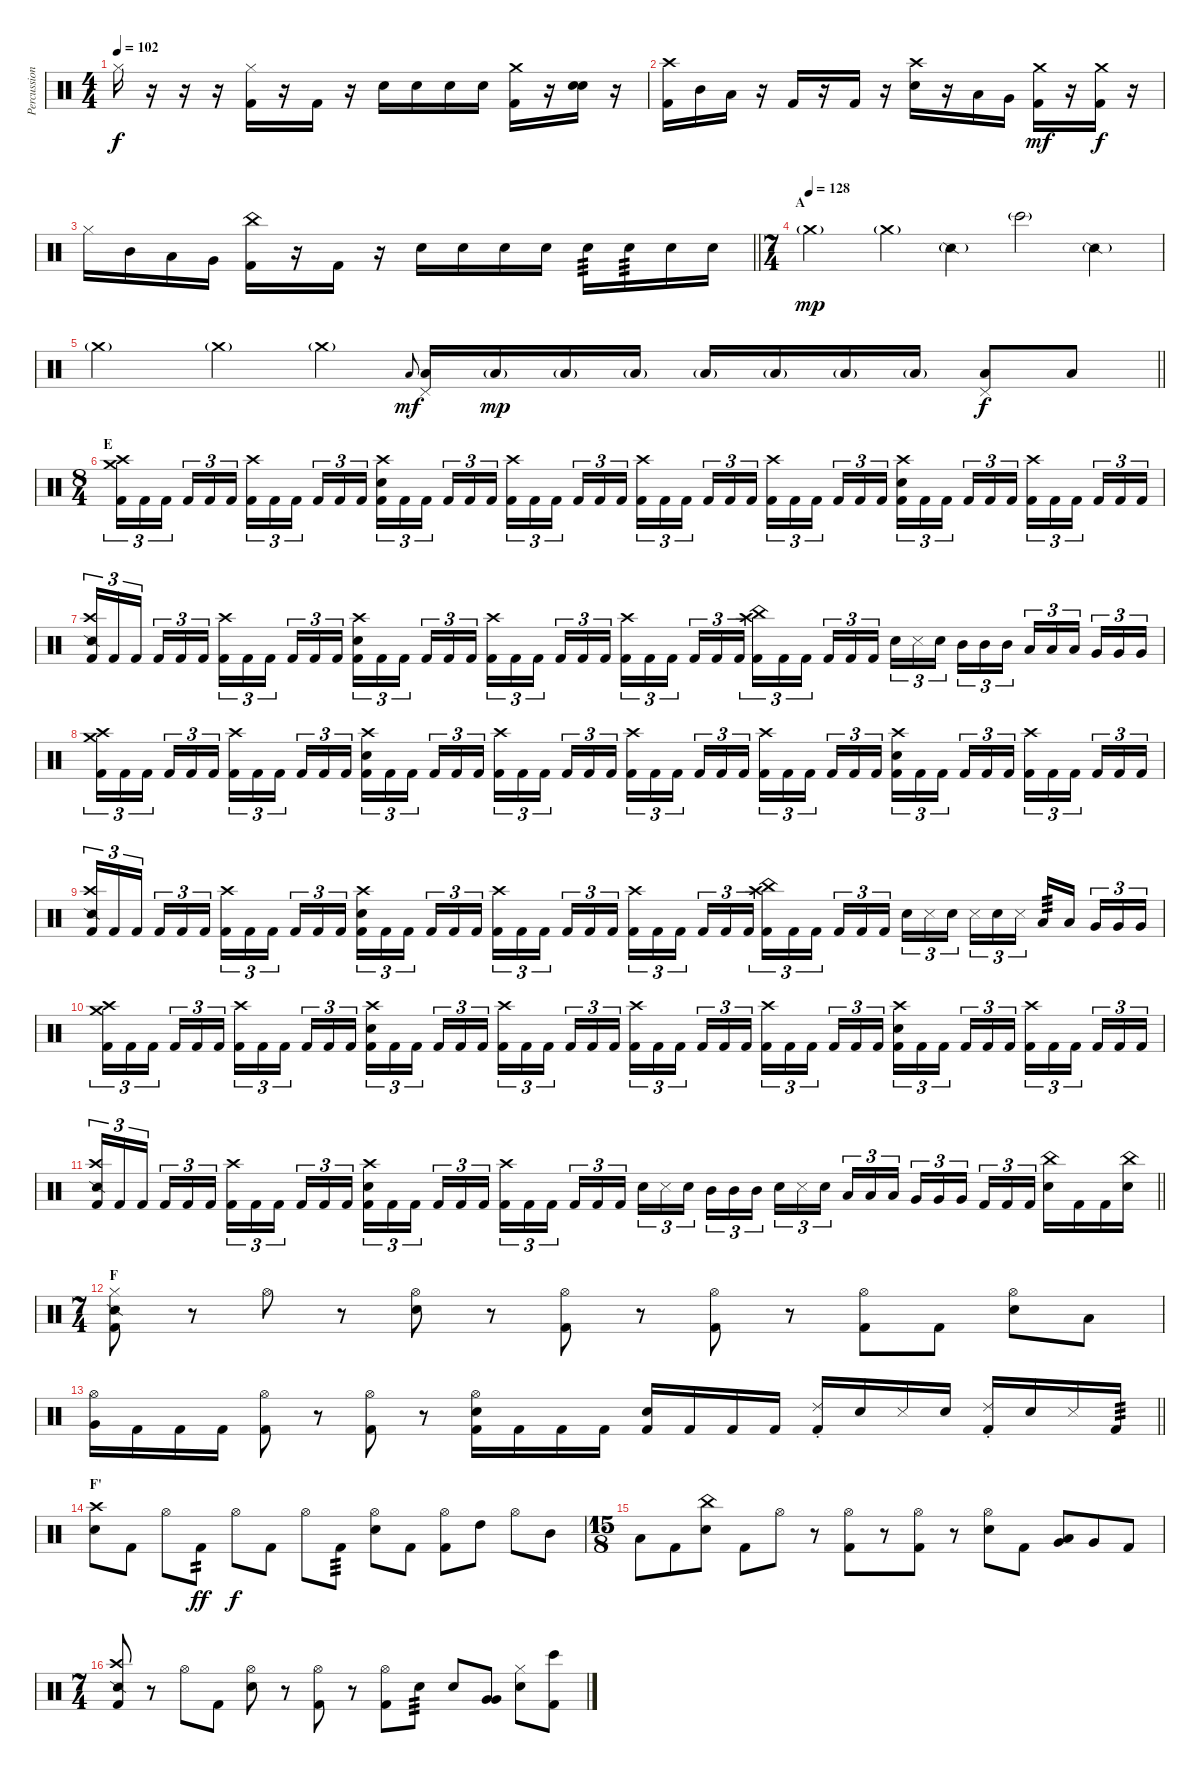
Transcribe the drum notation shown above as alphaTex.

\track ("Percussion" "Percussion") {instrument percussion}
\staff {score}
\articulation defaults
\ts (4 4)
\tempo 102
\clef neutral
\ks c "Hi-Hat (closed)".16{dy f}
r.16 r.16 r.16 ("Hi-Hat (closed)" "Kick (hit) 2").16 r.16 "Kick (hit) 2".16 r.16 "Snare (hit) 2".16 "Snare (hit) 2".16 "Snare (hit) 2".16 "Snare (hit) 2".16 ("Crash medium (hit)" "Kick (hit) 2").16 r.16 ("Snare (hit)" "Snare (hit) 2").16 r.16 |
("Crash high (hit)" "Kick (hit) 2").16 "Mid Tom (hit)".16 "Low Tom (hit)".16 r.16 "Kick (hit) 2".16 r.16 "Kick (hit) 2".16 r.16 ("Crash high (hit)" "Snare (hit) 2").16 r.16 "Low Tom (hit)".16 "Very Low Tom (hit)".16 ("Crash medium (hit)" "Kick (hit) 2").16{dy mf} r.16 ("Crash medium (hit)" "Kick (hit) 2").16{dy f} r.16 |
\barLineRight lightlight "Hi-Hat (closed)".16 "Mid Tom (hit)".16 "Low Tom (hit)".16 "Very Low Tom (hit)".16
("China (hit)" "Kick (hit) 2").16 r.16 "Kick (hit) 2".16 r.16 "Snare (hit) 2".16 "Snare (hit) 2".16 "Snare (hit) 2".16 "Snare (hit) 2".16 "Snare (hit) 2".16{tp 3} "Snare (hit) 2".16{tp 3} "Snare (hit) 2".16 "Snare (hit) 2".16 |
\ts (7 4)
\section ("" "A")
\tempo (128)
"Crash medium (hit)"{g}.2{dy mp} "Crash medium (hit)"{g}.4 "Snare (side stick) 2"{g}.4 "Bongo High (hit)"{g}.2 "Snare (side stick) 2"{g}.4 |
\barLineRight lightlight "Crash medium (hit)"{g}.2 "Crash medium (hit)"{g}.4 "Crash medium (hit)"{g}.4 "Low Tom (hit)".8{gr onbeat dy mf}
("Pedal Hi-Hat (hit)" "Low Tom (hit)").16 "Low Tom (hit)"{g}.16{dy mp} "Low Tom (hit)"{g}.16 "Low Tom (hit)"{g}.16 "Low Tom (hit)"{g}.16 "Low Tom (hit)"{g}.16 "Low Tom (hit)"{g}.16 "Low Tom (hit)"{g}.16 ("Pedal Hi-Hat (hit)" "Low Tom (hit)").8{dy f} "Low Tom (hit)".8 |
\ts (8 4)
\section ("" "E")
("Crash high (hit)" "Crash medium (hit)" "Kick (hit) 2").16{tu (3 2)} "Kick (hit) 2".16{tu (3 2)} "Kick (hit) 2".16{tu (3 2) beam splitsecondary} "Kick (hit) 2".16{tu (3 2)} "Kick (hit) 2".16{tu (3 2)} "Kick (hit) 2".16{tu (3 2)} ("Crash high (hit)" "Kick (hit) 2").16{tu (3 2)} "Kick (hit) 2".16{tu (3 2)} "Kick (hit) 2".16{tu (3 2) beam splitsecondary} "Kick (hit) 2".16{tu (3 2)} "Kick (hit) 2".16{tu (3 2)} "Kick (hit) 2".16{tu (3 2)} ("Crash high (hit)" "Snare (hit) 2" "Kick (hit) 2").16{tu (3 2)} "Kick (hit) 2".16{tu (3 2)} "Kick (hit) 2".16{tu (3 2) beam splitsecondary} "Kick (hit) 2".16{tu (3 2)} "Kick (hit) 2".16{tu (3 2)} "Kick (hit) 2".16{tu (3 2)} ("Crash high (hit)" "Kick (hit) 2").16{tu (3 2)} "Kick (hit) 2".16{tu (3 2)} "Kick (hit) 2".16{tu (3 2) beam splitsecondary} "Kick (hit) 2".16{tu (3 2)} "Kick (hit) 2".16{tu (3 2)} "Kick (hit) 2".16{tu (3 2)} ("Crash high (hit)" "Kick (hit) 2").16{tu (3 2)} "Kick (hit) 2".16{tu (3 2)} "Kick (hit) 2".16{tu (3 2) beam splitsecondary} "Kick (hit) 2".16{tu (3 2)} "Kick (hit) 2".16{tu (3 2)} "Kick (hit) 2".16{tu (3 2)} ("Crash high (hit)" "Kick (hit) 2").16{tu (3 2)} "Kick (hit) 2".16{tu (3 2)} "Kick (hit) 2".16{tu (3 2) beam splitsecondary} "Kick (hit) 2".16{tu (3 2)} "Kick (hit) 2".16{tu (3 2)} "Kick (hit) 2".16{tu (3 2)} ("Crash high (hit)" "Snare (hit) 2" "Kick (hit) 2").16{tu (3 2)} "Kick (hit) 2".16{tu (3 2)} "Kick (hit) 2".16{tu (3 2) beam splitsecondary} "Kick (hit) 2".16{tu (3 2)} "Kick (hit) 2".16{tu (3 2)} "Kick (hit) 2".16{tu (3 2)} ("Crash high (hit)" "Kick (hit) 2").16{tu (3 2)} "Kick (hit) 2".16{tu (3 2)} "Kick (hit) 2".16{tu (3 2) beam splitsecondary} "Kick (hit) 2".16{tu (3 2)} "Kick (hit) 2".16{tu (3 2)} "Kick (hit) 2".16{tu (3 2)} |
("Crash high (hit)" "Snare (side stick) 2" "Kick (hit) 2").16{tu (3 2)} "Kick (hit) 2".16{tu (3 2)} "Kick (hit) 2".16{tu (3 2) beam splitsecondary} "Kick (hit) 2".16{tu (3 2)} "Kick (hit) 2".16{tu (3 2)} "Kick (hit) 2".16{tu (3 2)} ("Crash high (hit)" "Kick (hit) 2").16{tu (3 2)} "Kick (hit) 2".16{tu (3 2)} "Kick (hit) 2".16{tu (3 2) beam splitsecondary} "Kick (hit) 2".16{tu (3 2)} "Kick (hit) 2".16{tu (3 2)} "Kick (hit) 2".16{tu (3 2)} ("Crash high (hit)" "Snare (hit) 2" "Kick (hit) 2").16{tu (3 2)} "Kick (hit) 2".16{tu (3 2)} "Kick (hit) 2".16{tu (3 2) beam splitsecondary} "Kick (hit) 2".16{tu (3 2)} "Kick (hit) 2".16{tu (3 2)} "Kick (hit) 2".16{tu (3 2)} ("Crash high (hit)" "Kick (hit) 2").16{tu (3 2)} "Kick (hit) 2".16{tu (3 2)} "Kick (hit) 2".16{tu (3 2) beam splitsecondary} "Kick (hit) 2".16{tu (3 2)} "Kick (hit) 2".16{tu (3 2)} "Kick (hit) 2".16{tu (3 2)} ("Crash high (hit)" "Kick (hit) 2").16{tu (3 2)} "Kick (hit) 2".16{tu (3 2)} "Kick (hit) 2".16{tu (3 2) beam splitsecondary} "Kick (hit) 2".16{tu (3 2)} "Kick (hit) 2".16{tu (3 2)} "Kick (hit) 2".16{tu (3 2)} ("Crash high (hit)" "China (hit)" "Kick (hit) 2").16{tu (3 2)} "Kick (hit) 2".16{tu (3 2)} "Kick (hit) 2".16{tu (3 2) beam splitsecondary} "Kick (hit) 2".16{tu (3 2)} "Kick (hit) 2".16{tu (3 2)} "Kick (hit) 2".16{tu (3 2)} "Snare (hit) 2".16{tu (3 2)} "Metronome (hit)".16{tu (3 2)} "Snare (hit) 2".16{tu (3 2) beam splitsecondary} "Mid Tom (hit)".16{tu (3 2)} "Mid Tom (hit)".16{tu (3 2)} "Mid Tom (hit)".16{tu (3 2)} "Low Tom (hit)".16{tu (3 2)} "Low Tom (hit)".16{tu (3 2)} "Low Tom (hit)".16{tu (3 2) beam splitsecondary} "Very Low Tom (hit)".16{tu (3 2)} "Very Low Tom (hit)".16{tu (3 2)} "Very Low Tom (hit)".16{tu (3 2)} |
("Crash high (hit)" "Crash medium (hit)" "Kick (hit) 2").16{tu (3 2)} "Kick (hit) 2".16{tu (3 2)} "Kick (hit) 2".16{tu (3 2) beam splitsecondary} "Kick (hit) 2".16{tu (3 2)} "Kick (hit) 2".16{tu (3 2)} "Kick (hit) 2".16{tu (3 2)} ("Crash high (hit)" "Kick (hit) 2").16{tu (3 2)} "Kick (hit) 2".16{tu (3 2)} "Kick (hit) 2".16{tu (3 2) beam splitsecondary} "Kick (hit) 2".16{tu (3 2)} "Kick (hit) 2".16{tu (3 2)} "Kick (hit) 2".16{tu (3 2)} ("Crash high (hit)" "Snare (hit) 2" "Kick (hit) 2").16{tu (3 2)} "Kick (hit) 2".16{tu (3 2)} "Kick (hit) 2".16{tu (3 2) beam splitsecondary} "Kick (hit) 2".16{tu (3 2)} "Kick (hit) 2".16{tu (3 2)} "Kick (hit) 2".16{tu (3 2)} ("Crash high (hit)" "Kick (hit) 2").16{tu (3 2)} "Kick (hit) 2".16{tu (3 2)} "Kick (hit) 2".16{tu (3 2) beam splitsecondary} "Kick (hit) 2".16{tu (3 2)} "Kick (hit) 2".16{tu (3 2)} "Kick (hit) 2".16{tu (3 2)} ("Crash high (hit)" "Kick (hit) 2").16{tu (3 2)} "Kick (hit) 2".16{tu (3 2)} "Kick (hit) 2".16{tu (3 2) beam splitsecondary} "Kick (hit) 2".16{tu (3 2)} "Kick (hit) 2".16{tu (3 2)} "Kick (hit) 2".16{tu (3 2)} ("Crash high (hit)" "Kick (hit) 2").16{tu (3 2)} "Kick (hit) 2".16{tu (3 2)} "Kick (hit) 2".16{tu (3 2) beam splitsecondary} "Kick (hit) 2".16{tu (3 2)} "Kick (hit) 2".16{tu (3 2)} "Kick (hit) 2".16{tu (3 2)} ("Crash high (hit)" "Snare (hit) 2" "Kick (hit) 2").16{tu (3 2)} "Kick (hit) 2".16{tu (3 2)} "Kick (hit) 2".16{tu (3 2) beam splitsecondary} "Kick (hit) 2".16{tu (3 2)} "Kick (hit) 2".16{tu (3 2)} "Kick (hit) 2".16{tu (3 2)} ("Crash high (hit)" "Kick (hit) 2").16{tu (3 2)} "Kick (hit) 2".16{tu (3 2)} "Kick (hit) 2".16{tu (3 2) beam splitsecondary} "Kick (hit) 2".16{tu (3 2)} "Kick (hit) 2".16{tu (3 2)} "Kick (hit) 2".16{tu (3 2)} |
("Crash high (hit)" "Snare (side stick) 2" "Kick (hit) 2").16{tu (3 2)} "Kick (hit) 2".16{tu (3 2)} "Kick (hit) 2".16{tu (3 2) beam splitsecondary} "Kick (hit) 2".16{tu (3 2)} "Kick (hit) 2".16{tu (3 2)} "Kick (hit) 2".16{tu (3 2)} ("Crash high (hit)" "Kick (hit) 2").16{tu (3 2)} "Kick (hit) 2".16{tu (3 2)} "Kick (hit) 2".16{tu (3 2) beam splitsecondary} "Kick (hit) 2".16{tu (3 2)} "Kick (hit) 2".16{tu (3 2)} "Kick (hit) 2".16{tu (3 2)} ("Crash high (hit)" "Snare (hit) 2" "Kick (hit) 2").16{tu (3 2)} "Kick (hit) 2".16{tu (3 2)} "Kick (hit) 2".16{tu (3 2) beam splitsecondary} "Kick (hit) 2".16{tu (3 2)} "Kick (hit) 2".16{tu (3 2)} "Kick (hit) 2".16{tu (3 2)} ("Crash high (hit)" "Kick (hit) 2").16{tu (3 2)} "Kick (hit) 2".16{tu (3 2)} "Kick (hit) 2".16{tu (3 2) beam splitsecondary} "Kick (hit) 2".16{tu (3 2)} "Kick (hit) 2".16{tu (3 2)} "Kick (hit) 2".16{tu (3 2)} ("Crash high (hit)" "Kick (hit) 2").16{tu (3 2)} "Kick (hit) 2".16{tu (3 2)} "Kick (hit) 2".16{tu (3 2) beam splitsecondary} "Kick (hit) 2".16{tu (3 2)} "Kick (hit) 2".16{tu (3 2)} "Kick (hit) 2".16{tu (3 2)} ("Crash high (hit)" "China (hit)" "Kick (hit) 2").16{tu (3 2)} "Kick (hit) 2".16{tu (3 2)} "Kick (hit) 2".16{tu (3 2) beam splitsecondary} "Kick (hit) 2".16{tu (3 2)} "Kick (hit) 2".16{tu (3 2)} "Kick (hit) 2".16{tu (3 2)} "Snare (hit) 2".16{tu (3 2)} "Metronome (hit)".16{tu (3 2)} "Snare (hit) 2".16{tu (3 2) beam splitsecondary} "Metronome (hit)".16{tu (3 2)} "Snare (hit) 2".16{tu (3 2)} "Metronome (hit)".16{tu (3 2)} "Low Tom (hit)".16{tp 3} "Low Tom (hit)".16{beam splitsecondary} "Very Low Tom (hit)".16{tu (3 2)} "Very Low Tom (hit)".16{tu (3 2)} "Very Low Tom (hit)".16{tu (3 2)} |
("Crash high (hit)" "Crash medium (hit)" "Kick (hit) 2").16{tu (3 2)} "Kick (hit) 2".16{tu (3 2)} "Kick (hit) 2".16{tu (3 2) beam splitsecondary} "Kick (hit) 2".16{tu (3 2)} "Kick (hit) 2".16{tu (3 2)} "Kick (hit) 2".16{tu (3 2)} ("Crash high (hit)" "Kick (hit) 2").16{tu (3 2)} "Kick (hit) 2".16{tu (3 2)} "Kick (hit) 2".16{tu (3 2) beam splitsecondary} "Kick (hit) 2".16{tu (3 2)} "Kick (hit) 2".16{tu (3 2)} "Kick (hit) 2".16{tu (3 2)} ("Crash high (hit)" "Snare (hit) 2" "Kick (hit) 2").16{tu (3 2)} "Kick (hit) 2".16{tu (3 2)} "Kick (hit) 2".16{tu (3 2) beam splitsecondary} "Kick (hit) 2".16{tu (3 2)} "Kick (hit) 2".16{tu (3 2)} "Kick (hit) 2".16{tu (3 2)} ("Crash high (hit)" "Kick (hit) 2").16{tu (3 2)} "Kick (hit) 2".16{tu (3 2)} "Kick (hit) 2".16{tu (3 2) beam splitsecondary} "Kick (hit) 2".16{tu (3 2)} "Kick (hit) 2".16{tu (3 2)} "Kick (hit) 2".16{tu (3 2)} ("Crash high (hit)" "Kick (hit) 2").16{tu (3 2)} "Kick (hit) 2".16{tu (3 2)} "Kick (hit) 2".16{tu (3 2) beam splitsecondary} "Kick (hit) 2".16{tu (3 2)} "Kick (hit) 2".16{tu (3 2)} "Kick (hit) 2".16{tu (3 2)} ("Crash high (hit)" "Kick (hit) 2").16{tu (3 2)} "Kick (hit) 2".16{tu (3 2)} "Kick (hit) 2".16{tu (3 2) beam splitsecondary} "Kick (hit) 2".16{tu (3 2)} "Kick (hit) 2".16{tu (3 2)} "Kick (hit) 2".16{tu (3 2)} ("Crash high (hit)" "Snare (hit) 2" "Kick (hit) 2").16{tu (3 2)} "Kick (hit) 2".16{tu (3 2)} "Kick (hit) 2".16{tu (3 2) beam splitsecondary} "Kick (hit) 2".16{tu (3 2)} "Kick (hit) 2".16{tu (3 2)} "Kick (hit) 2".16{tu (3 2)} ("Crash high (hit)" "Kick (hit) 2").16{tu (3 2)} "Kick (hit) 2".16{tu (3 2)} "Kick (hit) 2".16{tu (3 2) beam splitsecondary} "Kick (hit) 2".16{tu (3 2)} "Kick (hit) 2".16{tu (3 2)} "Kick (hit) 2".16{tu (3 2)} |
\barLineRight lightlight
("Crash high (hit)" "Snare (side stick) 2" "Kick (hit) 2").16{tu (3 2)} "Kick (hit) 2".16{tu (3 2)} "Kick (hit) 2".16{tu (3 2) beam splitsecondary} "Kick (hit) 2".16{tu (3 2)} "Kick (hit) 2".16{tu (3 2)} "Kick (hit) 2".16{tu (3 2)} ("Crash high (hit)" "Kick (hit) 2").16{tu (3 2)} "Kick (hit) 2".16{tu (3 2)} "Kick (hit) 2".16{tu (3 2) beam splitsecondary} "Kick (hit) 2".16{tu (3 2)} "Kick (hit) 2".16{tu (3 2)} "Kick (hit) 2".16{tu (3 2)} ("Crash high (hit)" "Snare (hit) 2" "Kick (hit) 2").16{tu (3 2)} "Kick (hit) 2".16{tu (3 2)} "Kick (hit) 2".16{tu (3 2) beam splitsecondary} "Kick (hit) 2".16{tu (3 2)} "Kick (hit) 2".16{tu (3 2)} "Kick (hit) 2".16{tu (3 2)} ("Crash high (hit)" "Kick (hit) 2").16{tu (3 2)} "Kick (hit) 2".16{tu (3 2)} "Kick (hit) 2".16{tu (3 2) beam splitsecondary} "Kick (hit) 2".16{tu (3 2)} "Kick (hit) 2".16{tu (3 2)} "Kick (hit) 2".16{tu (3 2)} "Snare (hit) 2".16{tu (3 2)} "Metronome (hit)".16{tu (3 2)} "Snare (hit) 2".16{tu (3 2) beam splitsecondary} "Mid Tom (hit)".16{tu (3 2)} "Mid Tom (hit)".16{tu (3 2)} "Mid Tom (hit)".16{tu (3 2)} "Snare (hit) 2".16{tu (3 2)} "Metronome (hit)".16{tu (3 2)} "Snare (hit) 2".16{tu (3 2) beam splitsecondary} "Low Tom (hit)".16{tu (3 2)} "Low Tom (hit)".16{tu (3 2)} "Low Tom (hit)".16{tu (3 2)} "Very Low Tom (hit)".16{tu (3 2)} "Very Low Tom (hit)".16{tu (3 2)} "Very Low Tom (hit)".16{tu (3 2) beam splitsecondary} "Kick (hit) 2".16{tu (3 2)} "Kick (hit) 2".16{tu (3 2)} "Kick (hit) 2".16{tu (3 2)} ("China (hit)" "Snare (hit) 2").16 "Kick (hit) 2".16 "Kick (hit) 2".16 ("China (hit)" "Snare (hit) 2").16 |
\ts (7 4)
\section ("" "F")
("Hi-Hat (closed)" "Snare (side stick) 2" "Kick (hit) 2").8 r.8 "Hi-Hat (open)".8 r.8 ("Hi-Hat (open)" "Snare (hit) 2").8 r.8 ("Hi-Hat (open)" "Kick (hit) 2").8 r.8 ("Hi-Hat (open)" "Kick (hit) 2").8 r.8 ("Hi-Hat (open)" "Kick (hit) 2").8 "Kick (hit) 2".8 ("Hi-Hat (open)" "Snare (hit) 2").8 "Low Tom (hit)".8 |
\barLineRight lightlight
("Hi-Hat (open)" "Very Low Tom (hit)").16 "Kick (hit) 2".16 "Kick (hit) 2".16 "Kick (hit) 2".16 ("Hi-Hat (open)" "Kick (hit) 2").8 r.8 ("Hi-Hat (open)" "Kick (hit) 2").8 r.8 ("Hi-Hat (open)" "Snare (hit) 2" "Kick (hit) 2").16 "Kick (hit) 2".16 "Kick (hit) 2".16 "Kick (hit) 2".16 ("Snare (hit)" "Kick (hit) 2").16 "Kick (hit) 2".16 "Kick (hit) 2".16 "Kick (hit) 2".16 ("Ride (choke) 2" "Kick (hit) 2").16 "Snare (hit) 2".16 "Metronome (hit)".16 "Snare (hit) 2".16 ("Ride (choke) 2" "Kick (hit) 2").16 "Snare (hit) 2".16 "Metronome (hit)".16 "Kick (hit) 2".16{tp 3} |
\section ("" "F'")
("Crash high (hit)" "Snare (hit) 2").8 "Kick (hit) 2".8 "Hi-Hat (open)".8 "Kick (hit) 2".8{tp 2 dy ff} "Hi-Hat (open)".8{dy f} "Kick (hit) 2".8 "Hi-Hat (open)".8 "Kick (hit) 2".8{tp 3} ("Hi-Hat (open)" "Snare (hit) 2").8 "Kick (hit) 2".8 ("Hi-Hat (open)" "Kick (hit) 2").8 "High Tom (hit)".8 "Hi-Hat (open)".8 "Mid Tom (hit)".8 |
\ts (15 8)
"Low Tom (hit)".8 "Kick (hit) 2".8 ("China (hit)" "Snare (hit) 2").8 "Kick (hit) 2".8 "Hi-Hat (open)".8 r.8 ("Hi-Hat (open)" "Kick (hit) 2").8 r.8 ("Hi-Hat (open)" "Kick (hit) 2").8 r.8 ("Hi-Hat (open)" "Snare (hit) 2").8 "Kick (hit) 2".8 ("Low Tom (hit)" "Very Low Tom (hit)").8{bu 60} "Very Low Tom (hit)".8 "Kick (hit) 2".8 |
\ts (7 4)
("Crash high (hit)" "Snare (side stick) 2" "Kick (hit) 2").8 r.8 "Hi-Hat (open)".8 "Kick (hit) 2".8 ("Hi-Hat (open)" "Snare (hit) 2").8 r.8 ("Hi-Hat (open)" "Kick (hit) 2").8 r.8 ("Hi-Hat (open)" "Kick (hit) 2").8 "Snare (hit) 2".8{tp 3} "Snare (hit) 2".8 ("Very Low Tom (hit)" "Very Low Tom (hit)").8{bu 60} ("Hi-Hat (closed)" "Snare (hit) 2").8 ("Bongo High (hit)" "Kick (hit) 2").8
